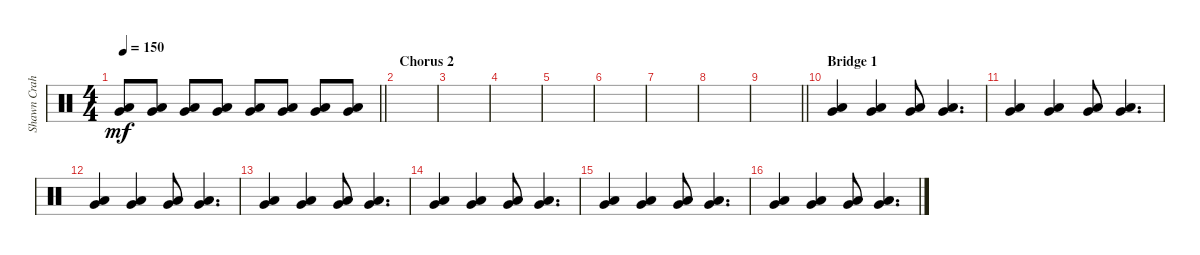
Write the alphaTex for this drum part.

\track ("Shawn Crahan" "Shawn Crah") {instrument percussion}
\staff {score}
\articulation defaults
\ts (4 4)
\tempo 150
\clef neutral
\barLineRight lightlight
\ks c
("Very Low Tom (hit)" "Low Floor Tom (hit)").8{dy mf} ("Very Low Tom (hit)" "Low Floor Tom (hit)").8 ("Very Low Tom (hit)" "Low Floor Tom (hit)").8 ("Very Low Tom (hit)" "Low Floor Tom (hit)").8 ("Very Low Tom (hit)" "Low Floor Tom (hit)").8 ("Very Low Tom (hit)" "Low Floor Tom (hit)").8 ("Very Low Tom (hit)" "Low Floor Tom (hit)").8 ("Very Low Tom (hit)" "Low Floor Tom (hit)").8 |
\section ("" "Chorus 2")
|
|
|
|
|
|
|
\barLineRight lightlight
|
\section ("" "Bridge 1")
("Very Low Tom (hit)" "Low Floor Tom (hit)").4 ("Very Low Tom (hit)" "Low Floor Tom (hit)").4 ("Very Low Tom (hit)" "Low Floor Tom (hit)").8 ("Very Low Tom (hit)" "Low Floor Tom (hit)").4{d} |
("Very Low Tom (hit)" "Low Floor Tom (hit)").4 ("Very Low Tom (hit)" "Low Floor Tom (hit)").4 ("Very Low Tom (hit)" "Low Floor Tom (hit)").8 ("Very Low Tom (hit)" "Low Floor Tom (hit)").4{d} |
("Very Low Tom (hit)" "Low Floor Tom (hit)").4 ("Very Low Tom (hit)" "Low Floor Tom (hit)").4 ("Very Low Tom (hit)" "Low Floor Tom (hit)").8 ("Very Low Tom (hit)" "Low Floor Tom (hit)").4{d} |
("Very Low Tom (hit)" "Low Floor Tom (hit)").4 ("Very Low Tom (hit)" "Low Floor Tom (hit)").4 ("Very Low Tom (hit)" "Low Floor Tom (hit)").8 ("Very Low Tom (hit)" "Low Floor Tom (hit)").4{d} |
("Very Low Tom (hit)" "Low Floor Tom (hit)").4 ("Very Low Tom (hit)" "Low Floor Tom (hit)").4 ("Very Low Tom (hit)" "Low Floor Tom (hit)").8 ("Very Low Tom (hit)" "Low Floor Tom (hit)").4{d} |
("Very Low Tom (hit)" "Low Floor Tom (hit)").4 ("Very Low Tom (hit)" "Low Floor Tom (hit)").4 ("Very Low Tom (hit)" "Low Floor Tom (hit)").8 ("Very Low Tom (hit)" "Low Floor Tom (hit)").4{d} |
("Very Low Tom (hit)" "Low Floor Tom (hit)").4 ("Very Low Tom (hit)" "Low Floor Tom (hit)").4 ("Very Low Tom (hit)" "Low Floor Tom (hit)").8 ("Very Low Tom (hit)" "Low Floor Tom (hit)").4{d}
